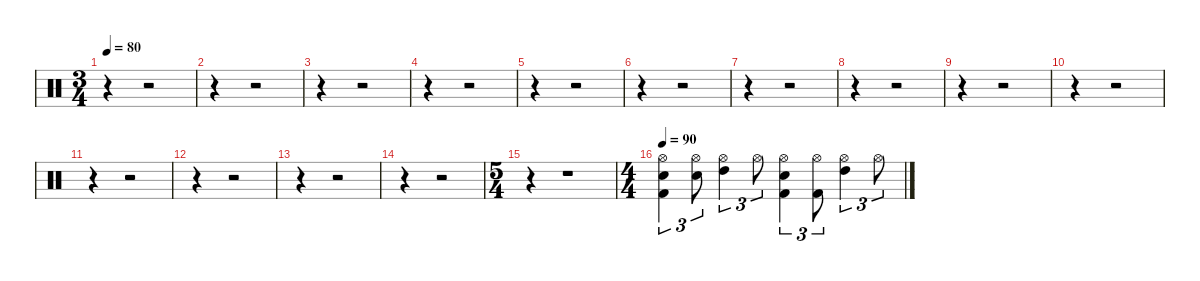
\defaultSystemsLayout 4
\hideDynamics
\bracketExtendMode nobrackets
\singleTrackTrackNamePolicy hidden
\multiTrackTrackNamePolicy hidden
\firstSystemTrackNameMode fullname
\firstSystemTrackNameOrientation horizontal
\otherSystemsTrackNameOrientation horizontal
\track ("Drums" "drm.") {instrument percussion}
\staff {score}
\articulation defaults
\ts (3 4)
\tempo 80
\clef neutral
\ks c
r.4{dy f beam Down} r.2{beam Down} |
r.4{beam Down} r.2{beam Down} |
r.4{beam Down} r.2{beam Down} |
r.4{beam Down} r.2{beam Down} |
r.4{beam Down} r.2{beam Down} |
r.4{beam Down} r.2{beam Down} |
r.4{beam Down} r.2{beam Down} |
r.4{beam Down} r.2{beam Down} |
r.4{beam Down} r.2{beam Down} |
r.4{beam Down} r.2{beam Down} |
r.4{beam Down} r.2{beam Down} |
r.4{beam Down} r.2{beam Down} |
r.4{beam Down} r.2{beam Down} |
r.4{beam Down} r.2{beam Down} |
\ts (5 4)
r.4{beam Down} r.1{beam Down} |
\ts (4 4)
\tempo 90
("Hi-Hat (open)" "Snare (hit) 2" "Kick (hit) 2").4{tu (3 2) dy mp beam Down} ("Hi-Hat (open)" "Snare (hit) 2").8{tu (3 2) beam Down} ("Hi-Hat (open)" "High Tom (hit)").4{tu (3 2) dy mf beam Down} "Hi-Hat (open)".8{tu (3 2) dy mp beam Down} ("Hi-Hat (open)" "Snare (hit) 2" "Kick (hit) 2").4{tu (3 2) dy mf beam Down} ("Hi-Hat (open)" "Kick (hit) 2").8{tu (3 2) dy mp beam Down} ("Hi-Hat (open)" "High Tom (hit)").4{tu (3 2) beam Down} "Hi-Hat (open)".8{tu (3 2) beam Down}
